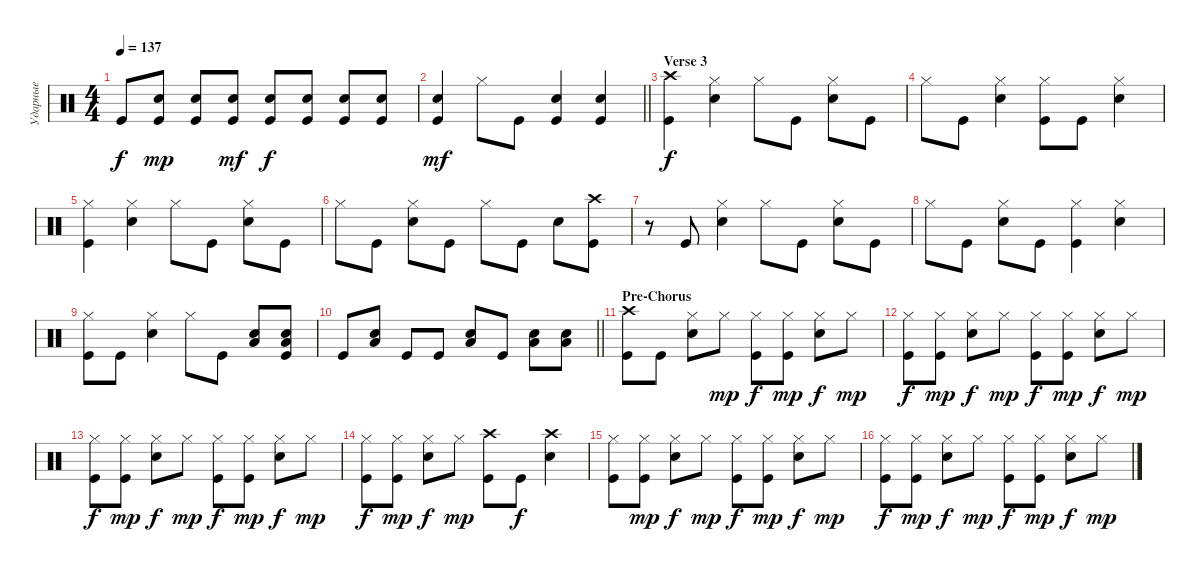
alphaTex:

\track ("Ударные" "Ударные") {instrument percussion}
\staff {score}
\articulation defaults
\ts (4 4)
\tempo 137
\clef neutral
\ks aminor "Kick (hit)".8{dy f}
("Kick (hit)" "Snare (hit) 2").8{dy mp} ("Kick (hit)" "Snare (hit) 2").8 ("Kick (hit)" "Snare (hit) 2").8{dy mf} ("Kick (hit)" "Snare (hit) 2").8{dy f} ("Kick (hit)" "Snare (hit) 2").8 ("Kick (hit)" "Snare (hit) 2").8 ("Kick (hit)" "Snare (hit) 2").8 |
\barLineRight lightlight
("Kick (hit)" "Snare (hit) 2").4{dy mf} "Hi-Hat (closed)".8 "Kick (hit)".8 ("Snare (hit) 2" "Kick (hit)").4 ("Kick (hit)" "Snare (hit) 2").4 |
\section ("" "Verse 3")
("Kick (hit)" "Crash high (hit)").4{dy f} ("Snare (hit) 2" "Hi-Hat (closed)").4 "Hi-Hat (closed)".8 "Kick (hit)".8 ("Snare (hit) 2" "Hi-Hat (closed)").8 "Kick (hit)".8 |
"Hi-Hat (closed)".8 "Kick (hit)".8 ("Snare (hit) 2" "Hi-Hat (closed)").4 ("Kick (hit)" "Hi-Hat (closed)").8 "Kick (hit)".8 ("Snare (hit) 2" "Hi-Hat (closed)").4 |
("Kick (hit)" "Hi-Hat (closed)").4 ("Snare (hit) 2" "Hi-Hat (closed)").4 "Hi-Hat (closed)".8 "Kick (hit)".8 ("Snare (hit) 2" "Hi-Hat (closed)").8 "Kick (hit)".8 |
"Hi-Hat (closed)".8 "Kick (hit)".8 ("Snare (hit) 2" "Hi-Hat (closed)").8 "Kick (hit)".8 "Hi-Hat (closed)".8 "Kick (hit)".8 "Snare (hit) 2".8 ("Kick (hit)" "Crash high (hit)").8 |
r.8 "Kick (hit)".8 ("Snare (hit) 2" "Hi-Hat (closed)").4 "Hi-Hat (closed)".8 "Kick (hit)".8 ("Snare (hit) 2" "Hi-Hat (closed)").8 "Kick (hit)".8 |
"Hi-Hat (closed)".8 "Kick (hit)".8 ("Snare (hit) 2" "Hi-Hat (closed)").8 "Kick (hit)".8 ("Kick (hit)" "Hi-Hat (closed)").4 ("Snare (hit) 2" "Hi-Hat (closed)").4 |
("Kick (hit)" "Hi-Hat (closed)").8 "Kick (hit)".8 ("Snare (hit) 2" "Hi-Hat (closed)").4 "Hi-Hat (closed)".8 "Kick (hit)".8 ("Snare (hit) 2" "Low Tom (hit)").8{bd 120} ("Kick (hit)" "Low Tom (hit)" "Snare (hit) 2").8{bd 120} |
\barLineRight lightlight "Kick (hit)".8
("Snare (hit) 2" "Low Tom (hit)").8{bd 120} "Kick (hit)".8 "Kick (hit)".8 ("Snare (hit) 2" "Low Tom (hit)").8{bd 120} "Kick (hit)".8 ("Snare (hit) 2" "Low Tom (hit)").8{bd 120} ("Low Tom (hit)" "Snare (hit) 2").8{bd 120} |
\section ("" "Pre-Chorus")
("Kick (hit)" "Crash high (hit)").8 "Kick (hit)".8 ("Snare (hit) 2" "Hi-Hat (closed)").8 "Hi-Hat (closed)".8{dy mp} ("Hi-Hat (closed)" "Kick (hit)").8{dy f} ("Hi-Hat (closed)" "Kick (hit)").8{dy mp} ("Hi-Hat (closed)" "Snare (hit) 2").8{dy f} "Hi-Hat (closed)".8{dy mp} |
("Kick (hit)" "Hi-Hat (closed)").8{dy f} ("Kick (hit)" "Hi-Hat (closed)").8{dy mp} ("Snare (hit) 2" "Hi-Hat (closed)").8{dy f} "Hi-Hat (closed)".8{dy mp} ("Hi-Hat (closed)" "Kick (hit)").8{dy f} ("Hi-Hat (closed)" "Kick (hit)").8{dy mp} ("Hi-Hat (closed)" "Snare (hit) 2").8{dy f} "Hi-Hat (closed)".8{dy mp} |
("Kick (hit)" "Hi-Hat (closed)").8{dy f} ("Kick (hit)" "Hi-Hat (closed)").8{dy mp} ("Snare (hit) 2" "Hi-Hat (closed)").8{dy f} "Hi-Hat (closed)".8{dy mp} ("Hi-Hat (closed)" "Kick (hit)").8{dy f} ("Hi-Hat (closed)" "Kick (hit)").8{dy mp} ("Hi-Hat (closed)" "Snare (hit) 2").8{dy f} "Hi-Hat (closed)".8{dy mp} |
("Kick (hit)" "Hi-Hat (closed)").8{dy f} ("Kick (hit)" "Hi-Hat (closed)").8{dy mp} ("Snare (hit) 2" "Hi-Hat (closed)").8{dy f} "Hi-Hat (closed)".8{dy mp} ("Crash high (hit)" "Kick (hit)").8 "Kick (hit)".8{dy f} ("Crash high (hit)" "Snare (hit) 2").4 |
("Kick (hit)" "Hi-Hat (closed)").8 ("Kick (hit)" "Hi-Hat (closed)").8{dy mp} ("Snare (hit) 2" "Hi-Hat (closed)").8{dy f} "Hi-Hat (closed)".8{dy mp} ("Hi-Hat (closed)" "Kick (hit)").8{dy f} ("Hi-Hat (closed)" "Kick (hit)").8{dy mp} ("Hi-Hat (closed)" "Snare (hit) 2").8{dy f} "Hi-Hat (closed)".8{dy mp} |
("Kick (hit)" "Hi-Hat (closed)").8{dy f} ("Kick (hit)" "Hi-Hat (closed)").8{dy mp} ("Snare (hit) 2" "Hi-Hat (closed)").8{dy f} "Hi-Hat (closed)".8{dy mp} ("Hi-Hat (closed)" "Kick (hit)").8{dy f} ("Hi-Hat (closed)" "Kick (hit)").8{dy mp} ("Hi-Hat (closed)" "Snare (hit) 2").8{dy f} "Hi-Hat (closed)".8{dy mp}
